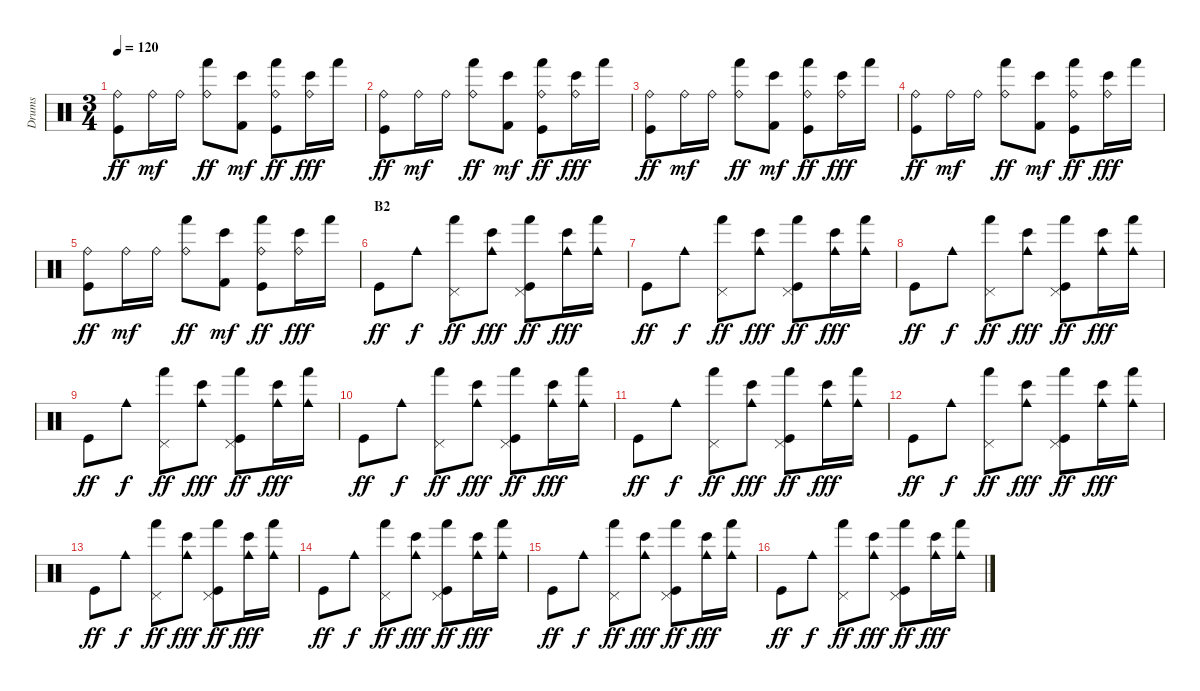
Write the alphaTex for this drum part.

\track ("Drums" "Drums") {instrument percussion}
\staff {score}
\articulation defaults
\ts (3 4)
\tempo 120
\clef neutral
\ks c
("Ride (bell)" "Kick (hit)").8{dy ff} "Ride (bell)".16{dy mf} "Ride (bell)".16 ("Ride (bell)" "Hand (hit)").8{dy ff} ("Bongo High (hit)" "Kick (hit) 2").8{dy mf} ("Ride (bell)" "Hand (hit)" "Kick (hit)").8{dy ff} ("Ride (bell)" "Bongo High (hit)").16{dy fff} "Hand (hit)".16 |
("Ride (bell)" "Kick (hit)").8{dy ff} "Ride (bell)".16{dy mf} "Ride (bell)".16 ("Ride (bell)" "Hand (hit)").8{dy ff} ("Bongo High (hit)" "Kick (hit) 2").8{dy mf} ("Ride (bell)" "Hand (hit)" "Kick (hit)").8{dy ff} ("Ride (bell)" "Bongo High (hit)").16{dy fff} "Hand (hit)".16 |
("Ride (bell)" "Kick (hit)").8{dy ff} "Ride (bell)".16{dy mf} "Ride (bell)".16 ("Ride (bell)" "Hand (hit)").8{dy ff} ("Bongo High (hit)" "Kick (hit) 2").8{dy mf} ("Ride (bell)" "Hand (hit)" "Kick (hit)").8{dy ff} ("Ride (bell)" "Bongo High (hit)").16{dy fff} "Hand (hit)".16 |
("Ride (bell)" "Kick (hit)").8{dy ff} "Ride (bell)".16{dy mf} "Ride (bell)".16 ("Ride (bell)" "Hand (hit)").8{dy ff} ("Bongo High (hit)" "Kick (hit) 2").8{dy mf} ("Ride (bell)" "Hand (hit)" "Kick (hit)").8{dy ff} ("Ride (bell)" "Bongo High (hit)").16{dy fff} "Hand (hit)".16 |
("Ride (bell)" "Kick (hit)").8{dy ff} "Ride (bell)".16{dy mf} "Ride (bell)".16 ("Ride (bell)" "Hand (hit)").8{dy ff} ("Bongo High (hit)" "Kick (hit) 2").8{dy mf} ("Ride (bell)" "Hand (hit)" "Kick (hit)").8{dy ff} ("Ride (bell)" "Bongo High (hit)").16{dy fff} "Hand (hit)".16 |
\section ("" "B2")
"Kick (hit)".8{dy ff} "Cowbell medium (hit)".8{dy f} ("Pedal Hi-Hat (hit)" "Hand (hit)").8{dy ff} ("Cowbell medium (hit)" "Bongo High (hit)").8{dy fff} ("Pedal Hi-Hat (hit)" "Hand (hit)" "Kick (hit)").8{dy ff} ("Cowbell medium (hit)" "Bongo High (hit)").16{dy fff} ("Cowbell medium (hit)" "Hand (hit)").16 |
"Kick (hit)".8{dy ff} "Cowbell medium (hit)".8{dy f} ("Pedal Hi-Hat (hit)" "Hand (hit)").8{dy ff} ("Cowbell medium (hit)" "Bongo High (hit)").8{dy fff} ("Pedal Hi-Hat (hit)" "Hand (hit)" "Kick (hit)").8{dy ff} ("Cowbell medium (hit)" "Bongo High (hit)").16{dy fff} ("Cowbell medium (hit)" "Hand (hit)").16 |
"Kick (hit)".8{dy ff} "Cowbell medium (hit)".8{dy f} ("Pedal Hi-Hat (hit)" "Hand (hit)").8{dy ff} ("Cowbell medium (hit)" "Bongo High (hit)").8{dy fff} ("Pedal Hi-Hat (hit)" "Hand (hit)" "Kick (hit)").8{dy ff} ("Cowbell medium (hit)" "Bongo High (hit)").16{dy fff} ("Cowbell medium (hit)" "Hand (hit)").16 |
"Kick (hit)".8{dy ff} "Cowbell medium (hit)".8{dy f} ("Pedal Hi-Hat (hit)" "Hand (hit)").8{dy ff} ("Cowbell medium (hit)" "Bongo High (hit)").8{dy fff} ("Pedal Hi-Hat (hit)" "Hand (hit)" "Kick (hit)").8{dy ff} ("Cowbell medium (hit)" "Bongo High (hit)").16{dy fff} ("Cowbell medium (hit)" "Hand (hit)").16 |
"Kick (hit)".8{dy ff} "Cowbell medium (hit)".8{dy f} ("Pedal Hi-Hat (hit)" "Hand (hit)").8{dy ff} ("Cowbell medium (hit)" "Bongo High (hit)").8{dy fff} ("Pedal Hi-Hat (hit)" "Hand (hit)" "Kick (hit)").8{dy ff} ("Cowbell medium (hit)" "Bongo High (hit)").16{dy fff} ("Cowbell medium (hit)" "Hand (hit)").16 |
"Kick (hit)".8{dy ff} "Cowbell medium (hit)".8{dy f} ("Pedal Hi-Hat (hit)" "Hand (hit)").8{dy ff} ("Cowbell medium (hit)" "Bongo High (hit)").8{dy fff} ("Pedal Hi-Hat (hit)" "Hand (hit)" "Kick (hit)").8{dy ff} ("Cowbell medium (hit)" "Bongo High (hit)").16{dy fff} ("Cowbell medium (hit)" "Hand (hit)").16 |
"Kick (hit)".8{dy ff} "Cowbell medium (hit)".8{dy f} ("Pedal Hi-Hat (hit)" "Hand (hit)").8{dy ff} ("Cowbell medium (hit)" "Bongo High (hit)").8{dy fff} ("Pedal Hi-Hat (hit)" "Hand (hit)" "Kick (hit)").8{dy ff} ("Cowbell medium (hit)" "Bongo High (hit)").16{dy fff} ("Cowbell medium (hit)" "Hand (hit)").16 |
"Kick (hit)".8{dy ff} "Cowbell medium (hit)".8{dy f} ("Pedal Hi-Hat (hit)" "Hand (hit)").8{dy ff} ("Cowbell medium (hit)" "Bongo High (hit)").8{dy fff} ("Pedal Hi-Hat (hit)" "Hand (hit)" "Kick (hit)").8{dy ff} ("Cowbell medium (hit)" "Bongo High (hit)").16{dy fff} ("Cowbell medium (hit)" "Hand (hit)").16 |
"Kick (hit)".8{dy ff} "Cowbell medium (hit)".8{dy f} ("Pedal Hi-Hat (hit)" "Hand (hit)").8{dy ff} ("Cowbell medium (hit)" "Bongo High (hit)").8{dy fff} ("Pedal Hi-Hat (hit)" "Hand (hit)" "Kick (hit)").8{dy ff} ("Cowbell medium (hit)" "Bongo High (hit)").16{dy fff} ("Cowbell medium (hit)" "Hand (hit)").16 |
"Kick (hit)".8{dy ff} "Cowbell medium (hit)".8{dy f} ("Pedal Hi-Hat (hit)" "Hand (hit)").8{dy ff} ("Cowbell medium (hit)" "Bongo High (hit)").8{dy fff} ("Pedal Hi-Hat (hit)" "Hand (hit)" "Kick (hit)").8{dy ff} ("Cowbell medium (hit)" "Bongo High (hit)").16{dy fff} ("Cowbell medium (hit)" "Hand (hit)").16 |
"Kick (hit)".8{dy ff} "Cowbell medium (hit)".8{dy f} ("Pedal Hi-Hat (hit)" "Hand (hit)").8{dy ff} ("Cowbell medium (hit)" "Bongo High (hit)").8{dy fff} ("Pedal Hi-Hat (hit)" "Hand (hit)" "Kick (hit)").8{dy ff} ("Cowbell medium (hit)" "Bongo High (hit)").16{dy fff} ("Cowbell medium (hit)" "Hand (hit)").16
